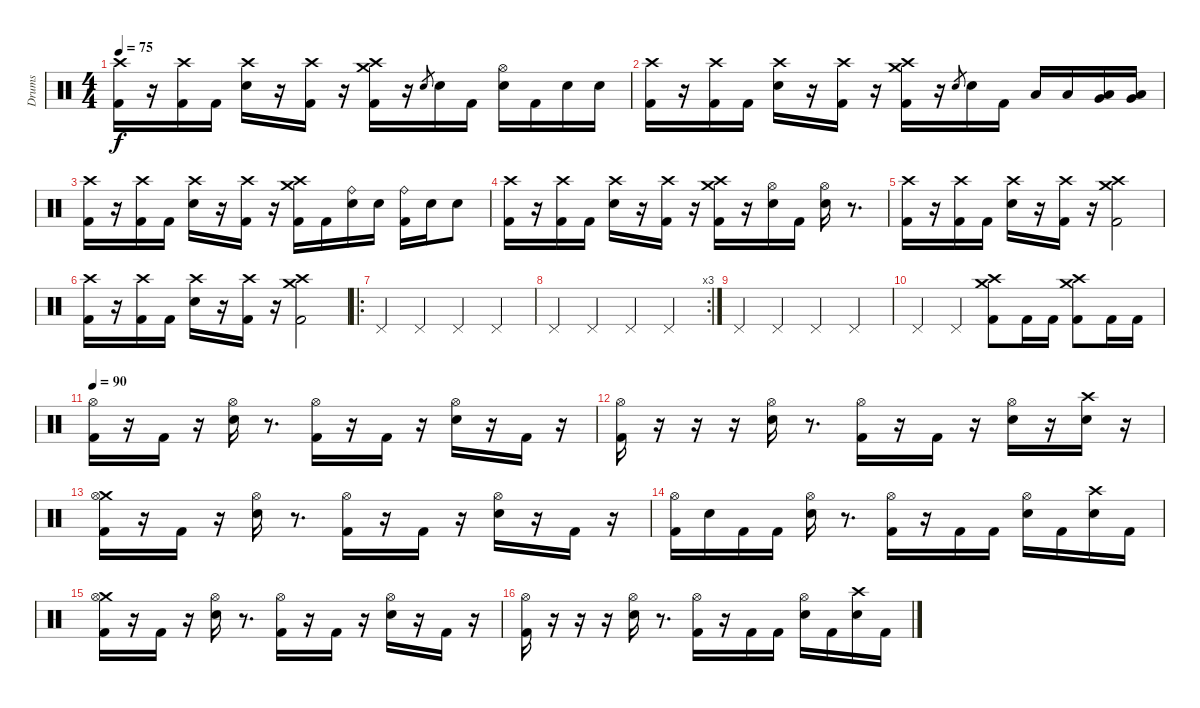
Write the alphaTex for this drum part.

\track ("Drums" "Drums") {instrument percussion}
\staff {score}
\articulation defaults
\ts (4 4)
\tempo 75
\clef neutral
\ks c
("Crash high (hit)" "Kick (hit) 2").16{dy f} r.16 ("Crash high (hit)" "Kick (hit) 2").16 "Kick (hit) 2".16 ("Crash high (hit)" "Electric Snare (hit)").16 r.16 ("Crash high (hit)" "Kick (hit) 2").16 r.16 ("Crash medium (hit)" "Crash high (hit)" "Kick (hit) 2").16 r.16 "Electric Snare (hit)".8{gr} "Electric Snare (hit)".16 "Kick (hit) 2".16 ("Hi-Hat (open)" "Electric Snare (hit)").16 "Kick (hit) 2".16 "Electric Snare (hit)".16 "Electric Snare (hit)".16 |
("Crash high (hit)" "Kick (hit) 2").16 r.16 ("Crash high (hit)" "Kick (hit) 2").16 "Kick (hit) 2".16 ("Crash high (hit)" "Electric Snare (hit)").16 r.16 ("Crash high (hit)" "Kick (hit) 2").16 r.16 ("Crash medium (hit)" "Crash high (hit)" "Kick (hit) 2").16 r.16 "Electric Snare (hit)".8{gr} "Electric Snare (hit)".16 "Kick (hit) 2".16 "Low Tom (hit)".16 "Low Tom (hit)".16 ("Very Low Tom (hit)" "Low Floor Tom (hit)").16 ("Very Low Tom (hit)" "Low Floor Tom (hit)").16 |
("Crash high (hit)" "Kick (hit) 2").16 r.16 ("Crash high (hit)" "Kick (hit) 2").16 "Kick (hit) 2".16 ("Crash high (hit)" "Electric Snare (hit)").16 r.16 ("Crash high (hit)" "Kick (hit) 2").16 r.16 ("Crash medium (hit)" "Crash high (hit)" "Kick (hit) 2").16 "Kick (hit) 2".16 ("Ride (bell)" "Electric Snare (hit)").16 "Electric Snare (hit)".16 ("Ride (bell)" "Kick (hit) 2").16 "Electric Snare (hit)".16 "Electric Snare (hit)".8 |
("Crash high (hit)" "Kick (hit) 2").16 r.16 ("Crash high (hit)" "Kick (hit) 2").16 "Kick (hit) 2".16 ("Crash high (hit)" "Electric Snare (hit)").16 r.16 ("Crash high (hit)" "Kick (hit) 2").16 r.16 ("Crash medium (hit)" "Crash high (hit)" "Kick (hit) 2").16 r.16 ("Hi-Hat (open)" "Electric Snare (hit)").16 "Kick (hit) 2".16 ("Hi-Hat (open)" "Electric Snare (hit)").16 r.8{d} |
("Crash high (hit)" "Kick (hit) 2").16 r.16 ("Crash high (hit)" "Kick (hit) 2").16 "Kick (hit) 2".16 ("Crash high (hit)" "Electric Snare (hit)").16 r.16 ("Crash high (hit)" "Kick (hit) 2").16 r.16 ("Crash medium (hit)" "Crash high (hit)" "Kick (hit) 2").2 |
("Crash high (hit)" "Kick (hit) 2").16 r.16 ("Crash high (hit)" "Kick (hit) 2").16 "Kick (hit) 2".16 ("Crash high (hit)" "Electric Snare (hit)").16 r.16 ("Crash high (hit)" "Kick (hit) 2").16 r.16 ("Crash medium (hit)" "Crash high (hit)" "Kick (hit) 2").2 |
\ro "Pedal Hi-Hat (hit)".4 "Pedal Hi-Hat (hit)".4 "Pedal Hi-Hat (hit)".4 "Pedal Hi-Hat (hit)".4
|
\rc 3 "Pedal Hi-Hat (hit)".4 "Pedal Hi-Hat (hit)".4 "Pedal Hi-Hat (hit)".4 "Pedal Hi-Hat (hit)".4
|
"Pedal Hi-Hat (hit)".4 "Pedal Hi-Hat (hit)".4 "Pedal Hi-Hat (hit)".4 "Pedal Hi-Hat (hit)".4 |
"Pedal Hi-Hat (hit)".4 "Pedal Hi-Hat (hit)".4 ("Crash high (hit)" "Crash medium (hit)" "Kick (hit) 2").8 "Kick (hit) 2".16 "Kick (hit) 2".16 ("Crash high (hit)" "Crash medium (hit)" "Kick (hit) 2").8 "Kick (hit) 2".16 "Kick (hit) 2".16 |
\tempo 90
("Hi-Hat (open)" "Kick (hit) 2").16 r.16 "Kick (hit) 2".16 r.16 ("Hi-Hat (open)" "Electric Snare (hit)").16 r.8{d} ("Hi-Hat (open)" "Kick (hit) 2").16 r.16 "Kick (hit) 2".16 r.16 ("Hi-Hat (open)" "Electric Snare (hit)").16 r.16 "Kick (hit) 2".16 r.16 |
("Hi-Hat (open)" "Kick (hit) 2").16 r.16 r.16 r.16 ("Hi-Hat (open)" "Electric Snare (hit)").16 r.8{d} ("Hi-Hat (open)" "Kick (hit) 2").16 r.16 "Kick (hit) 2".16 r.16 ("Hi-Hat (open)" "Electric Snare (hit)").16 r.16 ("Crash high (hit)" "Electric Snare (hit)").16 r.16 |
("Crash medium (hit)" "Hi-Hat (open)" "Kick (hit) 2").16 r.16 "Kick (hit) 2".16 r.16 ("Hi-Hat (open)" "Electric Snare (hit)").16 r.8{d} ("Hi-Hat (open)" "Kick (hit) 2").16 r.16 "Kick (hit) 2".16 r.16 ("Hi-Hat (open)" "Electric Snare (hit)").16 r.16 "Kick (hit) 2".16 r.16 |
("Hi-Hat (open)" "Kick (hit) 2").16 "Electric Snare (hit)".16 "Kick (hit) 2".16 "Kick (hit) 2".16 ("Hi-Hat (open)" "Electric Snare (hit)").16 r.8{d} ("Hi-Hat (open)" "Kick (hit) 2").16 r.16 "Kick (hit) 2".16 "Kick (hit) 2".16 ("Hi-Hat (open)" "Electric Snare (hit)").16 "Kick (hit) 2".16 ("Crash high (hit)" "Electric Snare (hit)").16 "Kick (hit) 2".16 |
("Crash medium (hit)" "Hi-Hat (open)" "Kick (hit) 2").16 r.16 "Kick (hit) 2".16 r.16 ("Hi-Hat (open)" "Electric Snare (hit)").16 r.8{d} ("Hi-Hat (open)" "Kick (hit) 2").16 r.16 "Kick (hit) 2".16 r.16 ("Hi-Hat (open)" "Electric Snare (hit)").16 r.16 "Kick (hit) 2".16 r.16 |
("Hi-Hat (open)" "Kick (hit) 2").16 r.16 r.16 r.16 ("Hi-Hat (open)" "Electric Snare (hit)").16 r.8{d} ("Hi-Hat (open)" "Kick (hit) 2").16 r.16 "Kick (hit) 2".16 "Kick (hit) 2".16 ("Hi-Hat (open)" "Electric Snare (hit)").16 "Kick (hit) 2".16 ("Crash high (hit)" "Electric Snare (hit)").16 "Kick (hit) 2".16
